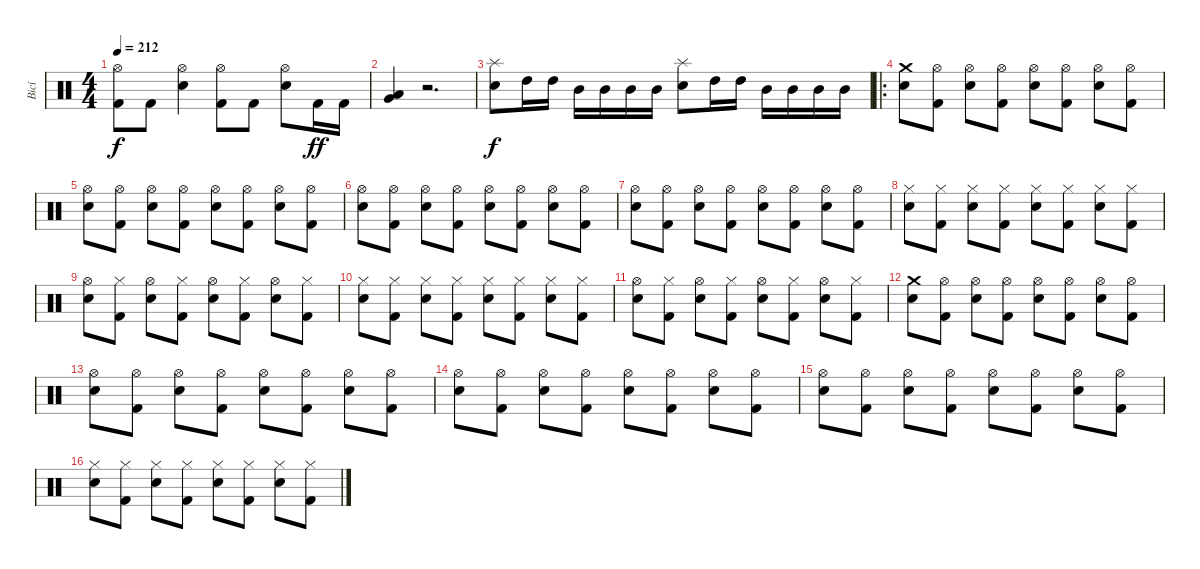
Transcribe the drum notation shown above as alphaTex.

\track ("Bicí" "Bicí") {instrument percussion}
\staff {score}
\articulation defaults
\ts (4 4)
\tempo 212
\clef neutral
\ks c
("Kick (hit) 2" "Hi-Hat (open)").8{dy f} "Kick (hit) 2".8 ("Snare (hit) 2" "Hi-Hat (open)").4 ("Kick (hit) 2" "Hi-Hat (open)").8 "Kick (hit) 2".8 ("Snare (hit) 2" "Hi-Hat (open)").8 "Kick (hit) 2".16{dy ff} "Kick (hit) 2".16 |
("Low Floor Tom (hit)" "Very Low Tom (hit)").4 r.2{d} |
("Snare (hit) 2" "Splash (hit)").8{dy f} "High Tom (hit)".16 "High Tom (hit)".16 "Mid Tom (hit)".16 "Mid Tom (hit)".16 "Mid Tom (hit)".16 "Mid Tom (hit)".16 ("Snare (hit) 2" "Splash (hit)").8 "High Tom (hit)".16 "High Tom (hit)".16 "Mid Tom (hit)".16 "Mid Tom (hit)".16 "Mid Tom (hit)".16 "Mid Tom (hit)".16 |
\ro
("Crash medium (hit)" "Snare (hit) 2").8 ("Hi-Hat (open)" "Kick (hit) 2").8 ("Hi-Hat (open)" "Snare (hit) 2").8 ("Hi-Hat (open)" "Kick (hit) 2").8 ("Hi-Hat (open)" "Snare (hit) 2").8 ("Hi-Hat (open)" "Kick (hit) 2").8 ("Hi-Hat (open)" "Snare (hit) 2").8 ("Hi-Hat (open)" "Kick (hit) 2").8 |
("Hi-Hat (open)" "Snare (hit) 2").8 ("Hi-Hat (open)" "Kick (hit) 2").8 ("Hi-Hat (open)" "Snare (hit) 2").8 ("Hi-Hat (open)" "Kick (hit) 2").8 ("Hi-Hat (open)" "Snare (hit) 2").8 ("Hi-Hat (open)" "Kick (hit) 2").8 ("Hi-Hat (open)" "Snare (hit) 2").8 ("Hi-Hat (open)" "Kick (hit) 2").8 |
("Hi-Hat (open)" "Snare (hit) 2").8 ("Hi-Hat (open)" "Kick (hit) 2").8 ("Hi-Hat (open)" "Snare (hit) 2").8 ("Hi-Hat (open)" "Kick (hit) 2").8 ("Hi-Hat (open)" "Snare (hit) 2").8 ("Hi-Hat (open)" "Kick (hit) 2").8 ("Hi-Hat (open)" "Snare (hit) 2").8 ("Hi-Hat (open)" "Kick (hit) 2").8 |
("Hi-Hat (open)" "Snare (hit) 2").8 ("Hi-Hat (open)" "Kick (hit) 2").8 ("Hi-Hat (open)" "Snare (hit) 2").8 ("Hi-Hat (open)" "Kick (hit) 2").8 ("Hi-Hat (open)" "Snare (hit) 2").8 ("Hi-Hat (open)" "Kick (hit) 2").8 ("Hi-Hat (open)" "Snare (hit) 2").8 ("Hi-Hat (open)" "Kick (hit) 2").8 |
("Hi-Hat (closed)" "Snare (hit) 2").8 ("Hi-Hat (closed)" "Kick (hit) 2").8 ("Hi-Hat (closed)" "Snare (hit) 2").8 ("Hi-Hat (closed)" "Kick (hit) 2").8 ("Hi-Hat (closed)" "Snare (hit) 2").8 ("Hi-Hat (closed)" "Kick (hit) 2").8 ("Hi-Hat (closed)" "Snare (hit) 2").8 ("Hi-Hat (closed)" "Kick (hit) 2").8 |
("Hi-Hat (open)" "Snare (hit) 2").8 ("Hi-Hat (closed)" "Kick (hit) 2").8 ("Hi-Hat (open)" "Snare (hit) 2").8 ("Hi-Hat (closed)" "Kick (hit) 2").8 ("Hi-Hat (open)" "Snare (hit) 2").8 ("Hi-Hat (closed)" "Kick (hit) 2").8 ("Hi-Hat (open)" "Snare (hit) 2").8 ("Hi-Hat (closed)" "Kick (hit) 2").8 |
("Hi-Hat (closed)" "Snare (hit) 2").8 ("Hi-Hat (closed)" "Kick (hit) 2").8 ("Hi-Hat (closed)" "Snare (hit) 2").8 ("Hi-Hat (closed)" "Kick (hit) 2").8 ("Hi-Hat (closed)" "Snare (hit) 2").8 ("Hi-Hat (closed)" "Kick (hit) 2").8 ("Hi-Hat (closed)" "Snare (hit) 2").8 ("Hi-Hat (closed)" "Kick (hit) 2").8 |
("Hi-Hat (open)" "Snare (hit) 2").8 ("Hi-Hat (closed)" "Kick (hit) 2").8 ("Hi-Hat (open)" "Snare (hit) 2").8 ("Hi-Hat (closed)" "Kick (hit) 2").8 ("Hi-Hat (open)" "Snare (hit) 2").8 ("Hi-Hat (closed)" "Kick (hit) 2").8 ("Hi-Hat (open)" "Snare (hit) 2").8 ("Hi-Hat (closed)" "Kick (hit) 2").8 |
("Crash medium (hit)" "Snare (hit) 2").8 ("Hi-Hat (open)" "Kick (hit) 2").8 ("Hi-Hat (open)" "Snare (hit) 2").8 ("Hi-Hat (open)" "Kick (hit) 2").8 ("Hi-Hat (open)" "Snare (hit) 2").8 ("Hi-Hat (open)" "Kick (hit) 2").8 ("Hi-Hat (open)" "Snare (hit) 2").8 ("Hi-Hat (open)" "Kick (hit) 2").8 |
("Hi-Hat (open)" "Snare (hit) 2").8 ("Hi-Hat (open)" "Kick (hit) 2").8 ("Hi-Hat (open)" "Snare (hit) 2").8 ("Hi-Hat (open)" "Kick (hit) 2").8 ("Hi-Hat (open)" "Snare (hit) 2").8 ("Hi-Hat (open)" "Kick (hit) 2").8 ("Hi-Hat (open)" "Snare (hit) 2").8 ("Hi-Hat (open)" "Kick (hit) 2").8 |
("Hi-Hat (open)" "Snare (hit) 2").8 ("Hi-Hat (open)" "Kick (hit) 2").8 ("Hi-Hat (open)" "Snare (hit) 2").8 ("Hi-Hat (open)" "Kick (hit) 2").8 ("Hi-Hat (open)" "Snare (hit) 2").8 ("Hi-Hat (open)" "Kick (hit) 2").8 ("Hi-Hat (open)" "Snare (hit) 2").8 ("Hi-Hat (open)" "Kick (hit) 2").8 |
("Hi-Hat (open)" "Snare (hit) 2").8 ("Hi-Hat (open)" "Kick (hit) 2").8 ("Hi-Hat (open)" "Snare (hit) 2").8 ("Hi-Hat (open)" "Kick (hit) 2").8 ("Hi-Hat (open)" "Snare (hit) 2").8 ("Hi-Hat (open)" "Kick (hit) 2").8 ("Hi-Hat (open)" "Snare (hit) 2").8 ("Hi-Hat (open)" "Kick (hit) 2").8 |
("Hi-Hat (closed)" "Snare (hit) 2").8 ("Hi-Hat (closed)" "Kick (hit) 2").8 ("Hi-Hat (closed)" "Snare (hit) 2").8 ("Hi-Hat (closed)" "Kick (hit) 2").8 ("Hi-Hat (closed)" "Snare (hit) 2").8 ("Hi-Hat (closed)" "Kick (hit) 2").8 ("Hi-Hat (closed)" "Snare (hit) 2").8 ("Hi-Hat (closed)" "Kick (hit) 2").8
